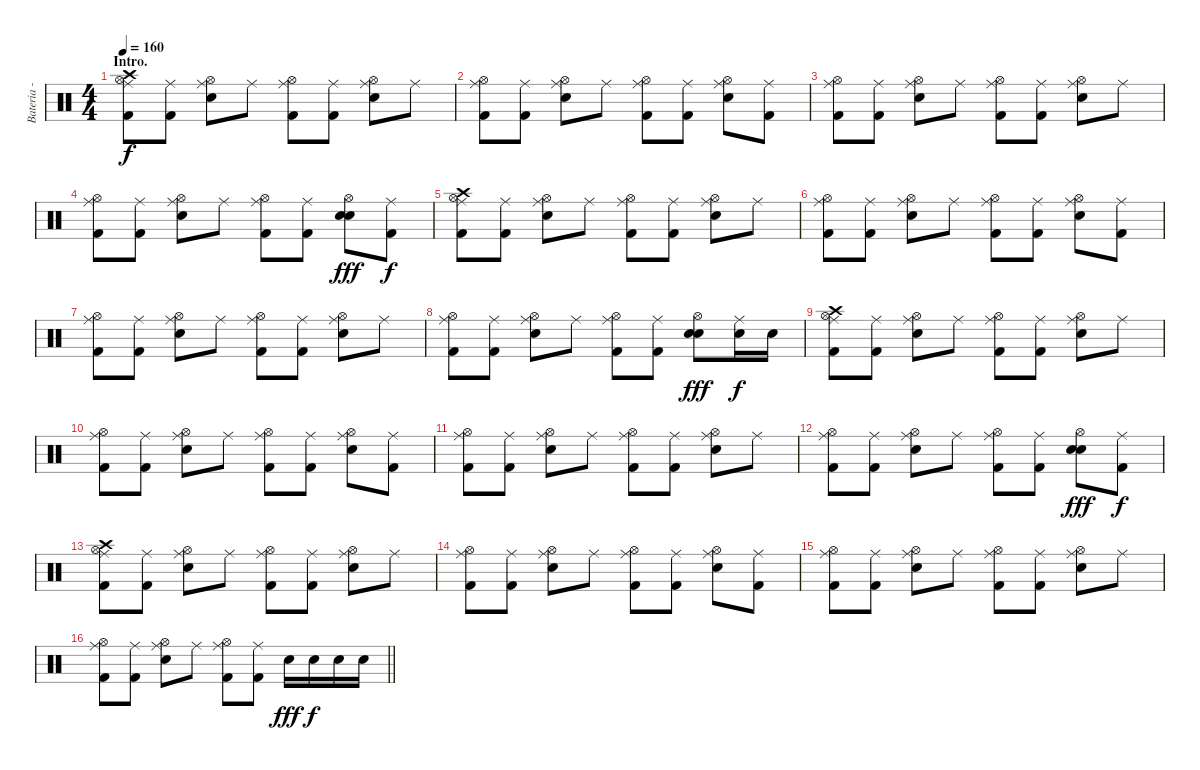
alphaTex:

\track ("Bateria - Larzon" "Bateria - ") {instrument percussion}
\staff {score}
\articulation defaults
\ts (4 4)
\section ("" "Intro.")
\tempo 160
\clef neutral
\ks c
("Kick (hit) 2" "Hi-Hat (open)" "Ride (middle)" "Crash high (hit)").8{dy f} ("Kick (hit) 2" "Ride (middle)").8 ("Snare (hit) 2" "Hi-Hat (open)" "Ride (middle)").8 "Ride (middle)".8 ("Kick (hit) 2" "Hi-Hat (open)" "Ride (middle)").8 ("Kick (hit) 2" "Ride (middle)").8 ("Snare (hit) 2" "Hi-Hat (open)" "Ride (middle)").8 "Ride (middle)".8 |
("Kick (hit) 2" "Hi-Hat (open)" "Ride (middle)").8 ("Kick (hit) 2" "Ride (middle)").8 ("Snare (hit) 2" "Hi-Hat (open)" "Ride (middle)").8 "Ride (middle)".8 ("Kick (hit) 2" "Hi-Hat (open)" "Ride (middle)").8 ("Kick (hit) 2" "Ride (middle)").8 ("Snare (hit) 2" "Hi-Hat (open)" "Ride (middle)").8 ("Kick (hit) 2" "Ride (middle)").8 |
("Kick (hit) 2" "Hi-Hat (open)" "Ride (middle)").8 ("Kick (hit) 2" "Ride (middle)").8 ("Snare (hit) 2" "Hi-Hat (open)" "Ride (middle)").8 "Ride (middle)".8 ("Kick (hit) 2" "Hi-Hat (open)" "Ride (middle)").8 ("Kick (hit) 2" "Ride (middle)").8 ("Snare (hit) 2" "Hi-Hat (open)" "Ride (middle)").8 "Ride (middle)".8 |
("Kick (hit) 2" "Hi-Hat (open)" "Ride (middle)").8 ("Kick (hit) 2" "Ride (middle)").8 ("Snare (hit) 2" "Hi-Hat (open)" "Ride (middle)").8 "Ride (middle)".8 ("Kick (hit) 2" "Hi-Hat (open)" "Ride (middle)").8 ("Kick (hit) 2" "Ride (middle)").8 ("Snare (hit) 2" "Snare (hit) 2" "Hi-Hat (open)").8{dy fff} ("Kick (hit) 2" "Ride (middle)").8{dy f} |
("Kick (hit) 2" "Hi-Hat (open)" "Ride (middle)" "Crash high (hit)").8 ("Kick (hit) 2" "Ride (middle)").8 ("Snare (hit) 2" "Hi-Hat (open)" "Ride (middle)").8 "Ride (middle)".8 ("Kick (hit) 2" "Hi-Hat (open)" "Ride (middle)").8 ("Kick (hit) 2" "Ride (middle)").8 ("Snare (hit) 2" "Hi-Hat (open)" "Ride (middle)").8 "Ride (middle)".8 |
("Kick (hit) 2" "Hi-Hat (open)" "Ride (middle)").8 ("Kick (hit) 2" "Ride (middle)").8 ("Snare (hit) 2" "Hi-Hat (open)" "Ride (middle)").8 "Ride (middle)".8 ("Kick (hit) 2" "Hi-Hat (open)" "Ride (middle)").8 ("Kick (hit) 2" "Ride (middle)").8 ("Snare (hit) 2" "Hi-Hat (open)" "Ride (middle)").8 ("Kick (hit) 2" "Ride (middle)").8 |
("Kick (hit) 2" "Hi-Hat (open)" "Ride (middle)").8 ("Kick (hit) 2" "Ride (middle)").8 ("Snare (hit) 2" "Hi-Hat (open)" "Ride (middle)").8 "Ride (middle)".8 ("Kick (hit) 2" "Hi-Hat (open)" "Ride (middle)").8 ("Kick (hit) 2" "Ride (middle)").8 ("Snare (hit) 2" "Hi-Hat (open)" "Ride (middle)").8 "Ride (middle)".8 |
("Kick (hit) 2" "Hi-Hat (open)" "Ride (middle)").8 ("Kick (hit) 2" "Ride (middle)").8 ("Snare (hit) 2" "Hi-Hat (open)" "Ride (middle)").8 "Ride (middle)".8 ("Kick (hit) 2" "Hi-Hat (open)" "Ride (middle)").8 ("Kick (hit) 2" "Ride (middle)").8 ("Snare (hit) 2" "Snare (hit) 2" "Hi-Hat (open)").8{dy fff} ("Snare (hit) 2" "Ride (middle)").16{dy f} "Snare (hit) 2".16 |
("Kick (hit) 2" "Hi-Hat (open)" "Ride (middle)" "Crash high (hit)").8 ("Kick (hit) 2" "Ride (middle)").8 ("Snare (hit) 2" "Hi-Hat (open)" "Ride (middle)").8 "Ride (middle)".8 ("Kick (hit) 2" "Hi-Hat (open)" "Ride (middle)").8 ("Kick (hit) 2" "Ride (middle)").8 ("Snare (hit) 2" "Hi-Hat (open)" "Ride (middle)").8 "Ride (middle)".8 |
("Kick (hit) 2" "Hi-Hat (open)" "Ride (middle)").8 ("Kick (hit) 2" "Ride (middle)").8 ("Snare (hit) 2" "Hi-Hat (open)" "Ride (middle)").8 "Ride (middle)".8 ("Kick (hit) 2" "Hi-Hat (open)" "Ride (middle)").8 ("Kick (hit) 2" "Ride (middle)").8 ("Snare (hit) 2" "Hi-Hat (open)" "Ride (middle)").8 ("Kick (hit) 2" "Ride (middle)").8 |
("Kick (hit) 2" "Hi-Hat (open)" "Ride (middle)").8 ("Kick (hit) 2" "Ride (middle)").8 ("Snare (hit) 2" "Hi-Hat (open)" "Ride (middle)").8 "Ride (middle)".8 ("Kick (hit) 2" "Hi-Hat (open)" "Ride (middle)").8 ("Kick (hit) 2" "Ride (middle)").8 ("Snare (hit) 2" "Hi-Hat (open)" "Ride (middle)").8 "Ride (middle)".8 |
("Kick (hit) 2" "Hi-Hat (open)" "Ride (middle)").8 ("Kick (hit) 2" "Ride (middle)").8 ("Snare (hit) 2" "Hi-Hat (open)" "Ride (middle)").8 "Ride (middle)".8 ("Kick (hit) 2" "Hi-Hat (open)" "Ride (middle)").8 ("Kick (hit) 2" "Ride (middle)").8 ("Snare (hit) 2" "Snare (hit) 2" "Hi-Hat (open)").8{dy fff} ("Kick (hit) 2" "Ride (middle)").8{dy f} |
("Kick (hit) 2" "Hi-Hat (open)" "Ride (middle)" "Crash high (hit)").8 ("Kick (hit) 2" "Ride (middle)").8 ("Snare (hit) 2" "Hi-Hat (open)" "Ride (middle)").8 "Ride (middle)".8 ("Kick (hit) 2" "Hi-Hat (open)" "Ride (middle)").8 ("Kick (hit) 2" "Ride (middle)").8 ("Snare (hit) 2" "Hi-Hat (open)" "Ride (middle)").8 "Ride (middle)".8 |
("Kick (hit) 2" "Hi-Hat (open)" "Ride (middle)").8 ("Kick (hit) 2" "Ride (middle)").8 ("Snare (hit) 2" "Hi-Hat (open)" "Ride (middle)").8 "Ride (middle)".8 ("Kick (hit) 2" "Hi-Hat (open)" "Ride (middle)").8 ("Kick (hit) 2" "Ride (middle)").8 ("Snare (hit) 2" "Hi-Hat (open)" "Ride (middle)").8 ("Kick (hit) 2" "Ride (middle)").8 |
("Kick (hit) 2" "Hi-Hat (open)" "Ride (middle)").8 ("Kick (hit) 2" "Ride (middle)").8 ("Snare (hit) 2" "Hi-Hat (open)" "Ride (middle)").8 "Ride (middle)".8 ("Kick (hit) 2" "Hi-Hat (open)" "Ride (middle)").8 ("Kick (hit) 2" "Ride (middle)").8 ("Snare (hit) 2" "Hi-Hat (open)" "Ride (middle)").8 "Ride (middle)".8 |
\barLineRight lightlight
("Kick (hit) 2" "Hi-Hat (open)" "Ride (middle)").8 ("Kick (hit) 2" "Ride (middle)").8 ("Snare (hit) 2" "Hi-Hat (open)" "Ride (middle)").8 "Ride (middle)".8 ("Kick (hit) 2" "Hi-Hat (open)" "Ride (middle)").8 ("Kick (hit) 2" "Ride (middle)").8 "Snare (hit) 2".16{dy fff} "Snare (hit) 2".16{dy f} "Snare (hit) 2".16 "Snare (hit) 2".16
